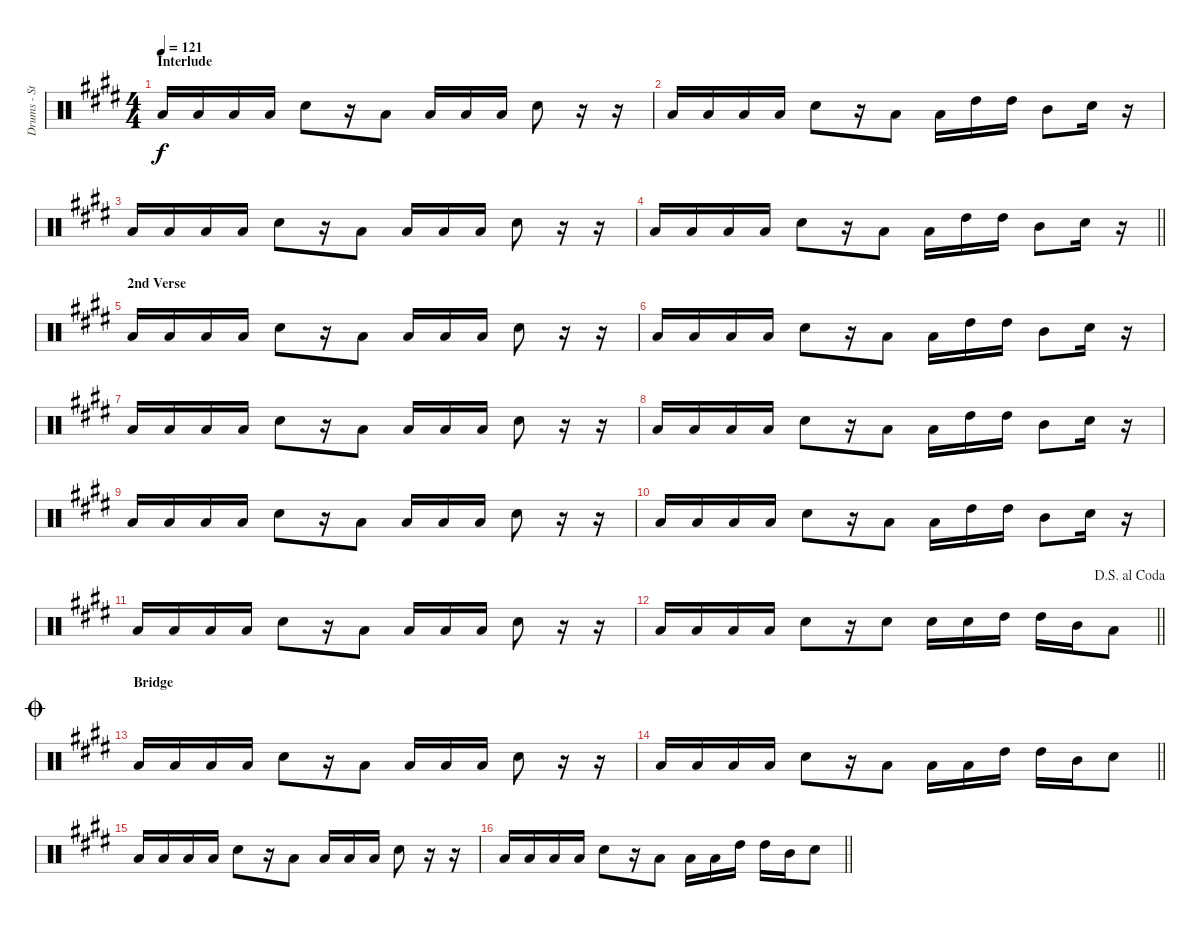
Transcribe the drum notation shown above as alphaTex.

\track ("Drums - Stephen Morris" "Drums - St") {instrument percussion}
\staff {score}
\articulation defaults
\ts (4 4)
\section ("" "Interlude")
\tempo 121
\clef neutral
\ks c#minor "Low Tom (hit)".16{dy f} "Low Tom (hit)".16 "Low Tom (hit)".16 "Low Tom (hit)".16 "Electric Snare (hit)".8
r.16 "Low Tom (hit)".8 "Low Tom (hit)".16 "Low Tom (hit)".16 "Low Tom (hit)".16 "Electric Snare (hit)".8 r.16 r.16 |
\ks e "Low Tom (hit)".16 "Low Tom (hit)".16 "Low Tom (hit)".16 "Low Tom (hit)".16 "Electric Snare (hit)".8
r.16 "Low Tom (hit)".8 "Low Tom (hit)".16 "High Tom (hit)".16 "High Tom (hit)".16 "Mid Tom (hit)".8 "Electric Snare (hit)".16 r.16 |
\ks c#minor "Low Tom (hit)".16 "Low Tom (hit)".16 "Low Tom (hit)".16 "Low Tom (hit)".16 "Electric Snare (hit)".8
r.16 "Low Tom (hit)".8 "Low Tom (hit)".16 "Low Tom (hit)".16 "Low Tom (hit)".16 "Electric Snare (hit)".8 r.16 r.16 |
\barLineRight lightlight "Low Tom (hit)".16 "Low Tom (hit)".16 "Low Tom (hit)".16 "Low Tom (hit)".16 "Electric Snare (hit)".8
r.16 "Low Tom (hit)".8 "Low Tom (hit)".16 "High Tom (hit)".16 "High Tom (hit)".16 "Mid Tom (hit)".8 "Electric Snare (hit)".16 r.16 |
\section ("" "2nd Verse")
"Low Tom (hit)".16 "Low Tom (hit)".16 "Low Tom (hit)".16 "Low Tom (hit)".16 "Electric Snare (hit)".8 r.16 "Low Tom (hit)".8 "Low Tom (hit)".16 "Low Tom (hit)".16 "Low Tom (hit)".16 "Electric Snare (hit)".8 r.16 r.16 |
\ks e "Low Tom (hit)".16 "Low Tom (hit)".16 "Low Tom (hit)".16 "Low Tom (hit)".16 "Electric Snare (hit)".8
r.16 "Low Tom (hit)".8 "Low Tom (hit)".16 "High Tom (hit)".16 "High Tom (hit)".16 "Mid Tom (hit)".8 "Electric Snare (hit)".16 r.16 |
\ks c#minor "Low Tom (hit)".16 "Low Tom (hit)".16 "Low Tom (hit)".16 "Low Tom (hit)".16 "Electric Snare (hit)".8
r.16 "Low Tom (hit)".8 "Low Tom (hit)".16 "Low Tom (hit)".16 "Low Tom (hit)".16 "Electric Snare (hit)".8 r.16 r.16 |
\ks e "Low Tom (hit)".16 "Low Tom (hit)".16 "Low Tom (hit)".16 "Low Tom (hit)".16 "Electric Snare (hit)".8
r.16 "Low Tom (hit)".8 "Low Tom (hit)".16 "High Tom (hit)".16 "High Tom (hit)".16 "Mid Tom (hit)".8 "Electric Snare (hit)".16 r.16 |
\ks c#minor "Low Tom (hit)".16 "Low Tom (hit)".16 "Low Tom (hit)".16 "Low Tom (hit)".16 "Electric Snare (hit)".8
r.16 "Low Tom (hit)".8 "Low Tom (hit)".16 "Low Tom (hit)".16 "Low Tom (hit)".16 "Electric Snare (hit)".8 r.16 r.16 |
\ks e "Low Tom (hit)".16 "Low Tom (hit)".16 "Low Tom (hit)".16 "Low Tom (hit)".16 "Electric Snare (hit)".8
r.16 "Low Tom (hit)".8 "Low Tom (hit)".16 "High Tom (hit)".16 "High Tom (hit)".16 "Mid Tom (hit)".8 "Electric Snare (hit)".16 r.16 |
\ks c#minor "Low Tom (hit)".16 "Low Tom (hit)".16 "Low Tom (hit)".16 "Low Tom (hit)".16 "Electric Snare (hit)".8
r.16 "Low Tom (hit)".8 "Low Tom (hit)".16 "Low Tom (hit)".16 "Low Tom (hit)".16 "Electric Snare (hit)".8 r.16 r.16 |
\jump dalsegnoalcoda
\barLineRight lightlight
\ks e "Low Tom (hit)".16 "Low Tom (hit)".16 "Low Tom (hit)".16 "Low Tom (hit)".16 "Electric Snare (hit)".8
r.16 "Electric Snare (hit)".8 "Electric Snare (hit)".16 "Electric Snare (hit)".16 "High Tom (hit)".16 "High Tom (hit)".16 "Mid Tom (hit)".16 "Low Tom (hit)".8 |
\section ("" "Bridge")
\jump coda "Low Tom (hit)".16 "Low Tom (hit)".16 "Low Tom (hit)".16 "Low Tom (hit)".16 "Electric Snare (hit)".8
r.16 "Low Tom (hit)".8 "Low Tom (hit)".16 "Low Tom (hit)".16 "Low Tom (hit)".16 "Electric Snare (hit)".8 r.16 r.16 |
\barLineRight lightlight
\ks c#minor "Low Tom (hit)".16 "Low Tom (hit)".16 "Low Tom (hit)".16 "Low Tom (hit)".16 "Electric Snare (hit)".8
r.16 "Low Tom (hit)".8 "Low Tom (hit)".16 "Low Tom (hit)".16 "High Tom (hit)".16 "High Tom (hit)".16 "Mid Tom (hit)".16 "Electric Snare (hit)".8 |
\ks e "Low Tom (hit)".16 "Low Tom (hit)".16 "Low Tom (hit)".16 "Low Tom (hit)".16 "Electric Snare (hit)".8
r.16 "Low Tom (hit)".8 "Low Tom (hit)".16 "Low Tom (hit)".16 "Low Tom (hit)".16 "Electric Snare (hit)".8 r.16 r.16 |
\barLineRight lightlight
\ks c#minor "Low Tom (hit)".16 "Low Tom (hit)".16 "Low Tom (hit)".16 "Low Tom (hit)".16 "Electric Snare (hit)".8
r.16 "Low Tom (hit)".8 "Low Tom (hit)".16 "Low Tom (hit)".16 "High Tom (hit)".16 "High Tom (hit)".16 "Mid Tom (hit)".16 "Electric Snare (hit)".8
